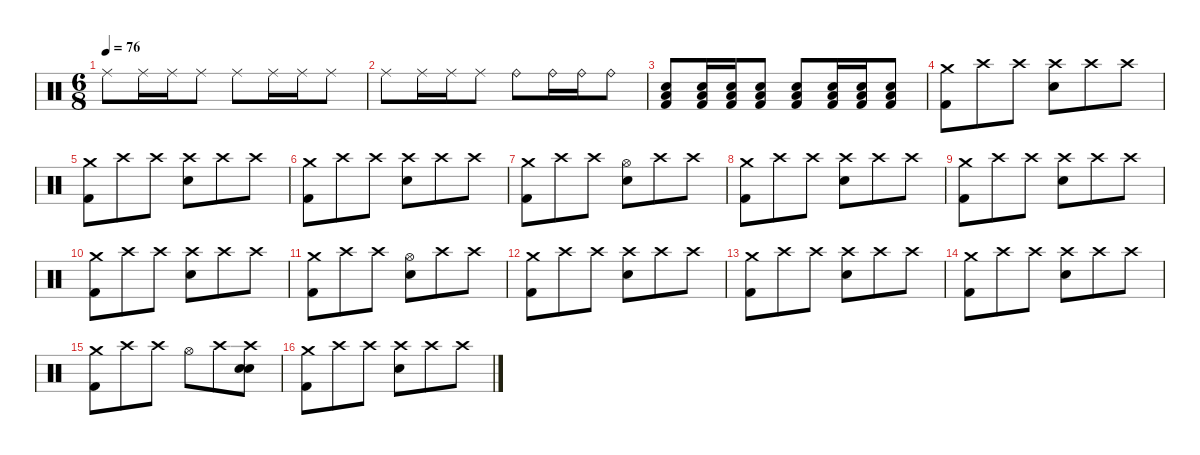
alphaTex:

\defaultSystemsLayout 4
\hideDynamics
\bracketExtendMode nobrackets
\singleTrackTrackNamePolicy hidden
\multiTrackTrackNamePolicy hidden
\firstSystemTrackNameMode fullname
\firstSystemTrackNameOrientation horizontal
\otherSystemsTrackNameOrientation horizontal
\track ("Drums" "drm.") {instrument percussion}
\staff {score}
\articulation defaults
\ts (6 8)
\tempo 76
\clef neutral
\ks c "Ride (middle)".8{dy f beam Down} "Ride (middle)".16{beam Down} "Ride (middle)".16{beam Down} "Ride (middle)".8{beam Down} "Ride (middle)".8{beam Down} "Ride (middle)".16{beam Down} "Ride (middle)".16{beam Down} "Ride (middle)".8{beam Down}
|
"Ride (middle)".8{beam Down} "Ride (middle)".16{beam Down} "Ride (middle)".16{beam Down} "Ride (middle)".8{beam Down} "Ride (bell)".8{beam Down} "Ride (bell)".16{beam Down} "Ride (bell)".16{beam Down} "Ride (bell)".8{beam Down} |
("Low Tom (hit)" "Snare (hit) 2" "Kick (hit) 2").8{beam Up} ("Low Tom (hit)" "Snare (hit) 2" "Kick (hit) 2").16{beam Up} ("Low Tom (hit)" "Snare (hit) 2" "Kick (hit) 2").16{beam Up} ("Low Tom (hit)" "Snare (hit) 2" "Kick (hit) 2").8{beam Up} ("Low Tom (hit)" "Snare (hit) 2" "Kick (hit) 2").8{beam Up} ("Low Tom (hit)" "Snare (hit) 2" "Kick (hit) 2").16{beam Up} ("Low Tom (hit)" "Snare (hit) 2" "Kick (hit) 2").16{beam Up} ("Low Tom (hit)" "Snare (hit) 2" "Kick (hit) 2").8{beam Up} |
("Crash medium (hit)" "Kick (hit) 2").8{beam Down} "Crash high (hit)".8{beam Down} "Crash high (hit)".8{beam Down} ("Crash high (hit)" "Snare (hit) 2").8{beam Down} "Crash high (hit)".8{beam Down} "Crash high (hit)".8{beam Down} |
("Crash medium (hit)" "Kick (hit) 2").8{beam Down} "Crash high (hit)".8{beam Down} "Crash high (hit)".8{beam Down} ("Crash high (hit)" "Snare (hit) 2").8{beam Down} "Crash high (hit)".8{beam Down} "Crash high (hit)".8{beam Down} |
("Crash medium (hit)" "Kick (hit) 2").8{beam Down} "Crash high (hit)".8{beam Down} "Crash high (hit)".8{beam Down} ("Crash high (hit)" "Snare (hit) 2").8{beam Down} "Crash high (hit)".8{beam Down} "Crash high (hit)".8{beam Down} |
("Crash medium (hit)" "Kick (hit) 2").8{beam Down} "Crash high (hit)".8{beam Down} "Crash high (hit)".8{beam Down} ("Hi-Hat (open)" "Snare (hit) 2").8{beam Down} "Crash high (hit)".8{beam Down} "Crash high (hit)".8{beam Down} |
("Crash medium (hit)" "Kick (hit) 2").8{beam Down} "Crash high (hit)".8{beam Down} "Crash high (hit)".8{beam Down} ("Crash high (hit)" "Snare (hit) 2").8{beam Down} "Crash high (hit)".8{beam Down} "Crash high (hit)".8{beam Down} |
("Crash medium (hit)" "Kick (hit) 2").8{beam Down} "Crash high (hit)".8{beam Down} "Crash high (hit)".8{beam Down} ("Crash high (hit)" "Snare (hit) 2").8{beam Down} "Crash high (hit)".8{beam Down} "Crash high (hit)".8{beam Down} |
("Crash medium (hit)" "Kick (hit) 2").8{beam Down} "Crash high (hit)".8{beam Down} "Crash high (hit)".8{beam Down} ("Crash high (hit)" "Snare (hit) 2").8{beam Down} "Crash high (hit)".8{beam Down} "Crash high (hit)".8{beam Down} |
("Crash medium (hit)" "Kick (hit) 2").8{beam Down} "Crash high (hit)".8{beam Down} "Crash high (hit)".8{beam Down} ("Hi-Hat (open)" "Snare (hit) 2").8{beam Down} "Crash high (hit)".8{beam Down} "Crash high (hit)".8{beam Down} |
("Crash medium (hit)" "Kick (hit) 2").8{beam Down} "Crash high (hit)".8{beam Down} "Crash high (hit)".8{beam Down} ("Crash high (hit)" "Snare (hit) 2").8{beam Down} "Crash high (hit)".8{beam Down} "Crash high (hit)".8{beam Down} |
("Crash medium (hit)" "Kick (hit) 2").8{beam Down} "Crash high (hit)".8{beam Down} "Crash high (hit)".8{beam Down} ("Crash high (hit)" "Snare (hit) 2").8{beam Down} "Crash high (hit)".8{beam Down} "Crash high (hit)".8{beam Down} |
("Crash medium (hit)" "Kick (hit) 2").8{beam Down} "Crash high (hit)".8{beam Down} "Crash high (hit)".8{beam Down} ("Crash high (hit)" "Snare (hit) 2").8{beam Down} "Crash high (hit)".8{beam Down} "Crash high (hit)".8{beam Down} |
("Crash medium (hit)" "Kick (hit) 2").8{beam Down} "Crash high (hit)".8{beam Down} "Crash high (hit)".8{beam Down} "Hi-Hat (open)".8{beam Down} "Crash high (hit)".8{beam Down} ("Crash high (hit)" "Snare (hit) 2" "Snare (hit) 2").8{beam Down} |
("Crash medium (hit)" "Kick (hit) 2").8{beam Down} "Crash high (hit)".8{beam Down} "Crash high (hit)".8{beam Down} ("Crash high (hit)" "Snare (hit) 2").8{beam Down} "Crash high (hit)".8{beam Down} "Crash high (hit)".8{beam Down}
